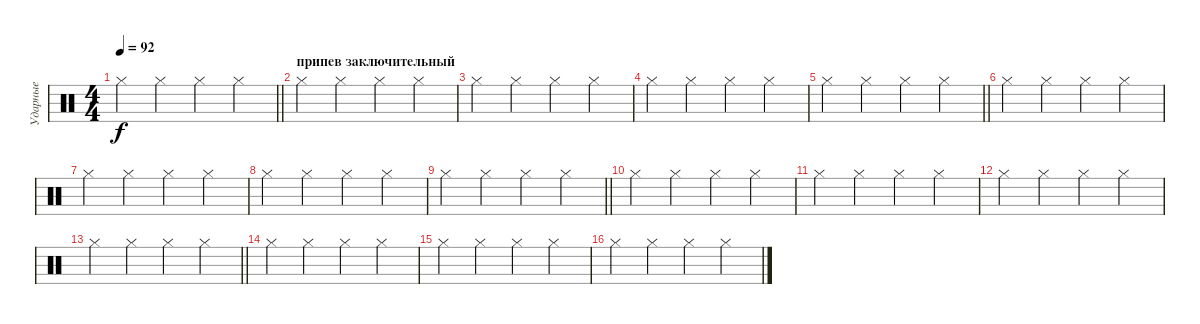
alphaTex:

\track ("Ударные" "Ударные") {instrument percussion}
\staff {score}
\articulation defaults
\ts (4 4)
\tempo 92
\clef neutral
\barLineRight lightlight
\ks c "Hi-Hat (closed)".4{dy f} "Hi-Hat (closed)".4 "Hi-Hat (closed)".4 "Hi-Hat (closed)".4
|
\section ("" "припев заключительный")
"Hi-Hat (closed)".4 "Hi-Hat (closed)".4 "Hi-Hat (closed)".4 "Hi-Hat (closed)".4 |
"Hi-Hat (closed)".4 "Hi-Hat (closed)".4 "Hi-Hat (closed)".4 "Hi-Hat (closed)".4 |
"Hi-Hat (closed)".4 "Hi-Hat (closed)".4 "Hi-Hat (closed)".4 "Hi-Hat (closed)".4 |
\barLineRight lightlight "Hi-Hat (closed)".4 "Hi-Hat (closed)".4 "Hi-Hat (closed)".4 "Hi-Hat (closed)".4
|
"Hi-Hat (closed)".4 "Hi-Hat (closed)".4 "Hi-Hat (closed)".4 "Hi-Hat (closed)".4 |
"Hi-Hat (closed)".4 "Hi-Hat (closed)".4 "Hi-Hat (closed)".4 "Hi-Hat (closed)".4 |
"Hi-Hat (closed)".4 "Hi-Hat (closed)".4 "Hi-Hat (closed)".4 "Hi-Hat (closed)".4 |
\barLineRight lightlight "Hi-Hat (closed)".4 "Hi-Hat (closed)".4 "Hi-Hat (closed)".4 "Hi-Hat (closed)".4
|
"Hi-Hat (closed)".4 "Hi-Hat (closed)".4 "Hi-Hat (closed)".4 "Hi-Hat (closed)".4 |
"Hi-Hat (closed)".4 "Hi-Hat (closed)".4 "Hi-Hat (closed)".4 "Hi-Hat (closed)".4 |
"Hi-Hat (closed)".4 "Hi-Hat (closed)".4 "Hi-Hat (closed)".4 "Hi-Hat (closed)".4 |
\barLineRight lightlight "Hi-Hat (closed)".4 "Hi-Hat (closed)".4 "Hi-Hat (closed)".4 "Hi-Hat (closed)".4
|
"Hi-Hat (closed)".4 "Hi-Hat (closed)".4 "Hi-Hat (closed)".4 "Hi-Hat (closed)".4 |
"Hi-Hat (closed)".4 "Hi-Hat (closed)".4 "Hi-Hat (closed)".4 "Hi-Hat (closed)".4 |
"Hi-Hat (closed)".4 "Hi-Hat (closed)".4 "Hi-Hat (closed)".4 "Hi-Hat (closed)".4
